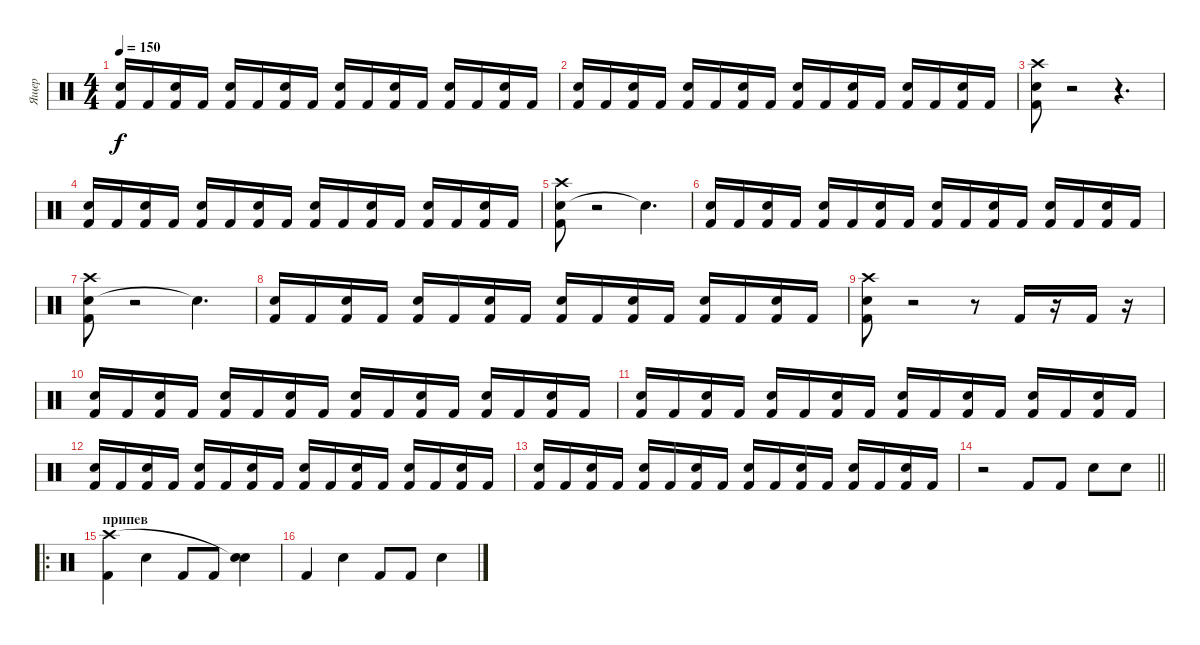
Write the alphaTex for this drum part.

\track ("Ящер" "Ящер") {instrument percussion}
\staff {score}
\articulation defaults
\ts (4 4)
\tempo 150
\clef neutral
\ks c
("Kick (hit) 2" "Snare (hit) 2").16{dy f} "Kick (hit) 2".16 ("Kick (hit) 2" "Snare (hit) 2").16 "Kick (hit) 2".16 ("Kick (hit) 2" "Snare (hit) 2").16 "Kick (hit) 2".16 ("Kick (hit) 2" "Snare (hit) 2").16 "Kick (hit) 2".16 ("Kick (hit) 2" "Snare (hit) 2").16 "Kick (hit) 2".16 ("Kick (hit) 2" "Snare (hit) 2").16 "Kick (hit) 2".16 ("Kick (hit) 2" "Snare (hit) 2").16 "Kick (hit) 2".16 ("Kick (hit) 2" "Snare (hit) 2").16 "Kick (hit) 2".16 |
("Kick (hit) 2" "Snare (hit) 2").16 "Kick (hit) 2".16 ("Kick (hit) 2" "Snare (hit) 2").16 "Kick (hit) 2".16 ("Kick (hit) 2" "Snare (hit) 2").16 "Kick (hit) 2".16 ("Kick (hit) 2" "Snare (hit) 2").16 "Kick (hit) 2".16 ("Kick (hit) 2" "Snare (hit) 2").16 "Kick (hit) 2".16 ("Kick (hit) 2" "Snare (hit) 2").16 "Kick (hit) 2".16 ("Kick (hit) 2" "Snare (hit) 2").16 "Kick (hit) 2".16 ("Kick (hit) 2" "Snare (hit) 2").16 "Kick (hit) 2".16 |
("Snare (hit) 2" "Crash high (hit)" "Kick (hit) 2").8 r.2 r.4{d} |
("Kick (hit) 2" "Snare (hit) 2").16 "Kick (hit) 2".16 ("Kick (hit) 2" "Snare (hit) 2").16 "Kick (hit) 2".16 ("Kick (hit) 2" "Snare (hit) 2").16 "Kick (hit) 2".16 ("Kick (hit) 2" "Snare (hit) 2").16 "Kick (hit) 2".16 ("Kick (hit) 2" "Snare (hit) 2").16 "Kick (hit) 2".16 ("Kick (hit) 2" "Snare (hit) 2").16 "Kick (hit) 2".16 ("Kick (hit) 2" "Snare (hit) 2").16 "Kick (hit) 2".16 ("Kick (hit) 2" "Snare (hit) 2").16 "Kick (hit) 2".16 |
("Snare (hit) 2" "Crash high (hit)" "Kick (hit) 2").8 r.2 "Snare (hit)"{t}.4{d} |
("Kick (hit) 2" "Snare (hit) 2").16 "Kick (hit) 2".16 ("Kick (hit) 2" "Snare (hit) 2").16 "Kick (hit) 2".16 ("Kick (hit) 2" "Snare (hit) 2").16 "Kick (hit) 2".16 ("Kick (hit) 2" "Snare (hit) 2").16 "Kick (hit) 2".16 ("Kick (hit) 2" "Snare (hit) 2").16 "Kick (hit) 2".16 ("Kick (hit) 2" "Snare (hit) 2").16 "Kick (hit) 2".16 ("Kick (hit) 2" "Snare (hit) 2").16 "Kick (hit) 2".16 ("Kick (hit) 2" "Snare (hit) 2").16 "Kick (hit) 2".16 |
("Snare (hit) 2" "Crash high (hit)" "Kick (hit) 2").8 r.2 "Snare (hit)"{t}.4{d} |
("Kick (hit) 2" "Snare (hit) 2").16 "Kick (hit) 2".16 ("Kick (hit) 2" "Snare (hit) 2").16 "Kick (hit) 2".16 ("Kick (hit) 2" "Snare (hit) 2").16 "Kick (hit) 2".16 ("Kick (hit) 2" "Snare (hit) 2").16 "Kick (hit) 2".16 ("Kick (hit) 2" "Snare (hit) 2").16 "Kick (hit) 2".16 ("Kick (hit) 2" "Snare (hit) 2").16 "Kick (hit) 2".16 ("Kick (hit) 2" "Snare (hit) 2").16 "Kick (hit) 2".16 ("Kick (hit) 2" "Snare (hit) 2").16 "Kick (hit) 2".16 |
("Snare (hit) 2" "Crash high (hit)" "Kick (hit) 2").8 r.2 r.8 "Kick (hit) 2".16 r.16 "Kick (hit) 2".16 r.16 |
("Kick (hit) 2" "Snare (hit) 2").16 "Kick (hit) 2".16 ("Kick (hit) 2" "Snare (hit) 2").16 "Kick (hit) 2".16 ("Kick (hit) 2" "Snare (hit) 2").16 "Kick (hit) 2".16 ("Kick (hit) 2" "Snare (hit) 2").16 "Kick (hit) 2".16 ("Kick (hit) 2" "Snare (hit) 2").16 "Kick (hit) 2".16 ("Kick (hit) 2" "Snare (hit) 2").16 "Kick (hit) 2".16 ("Kick (hit) 2" "Snare (hit) 2").16 "Kick (hit) 2".16 ("Kick (hit) 2" "Snare (hit) 2").16 "Kick (hit) 2".16 |
("Kick (hit) 2" "Snare (hit) 2").16 "Kick (hit) 2".16 ("Kick (hit) 2" "Snare (hit) 2").16 "Kick (hit) 2".16 ("Kick (hit) 2" "Snare (hit) 2").16 "Kick (hit) 2".16 ("Kick (hit) 2" "Snare (hit) 2").16 "Kick (hit) 2".16 ("Kick (hit) 2" "Snare (hit) 2").16 "Kick (hit) 2".16 ("Kick (hit) 2" "Snare (hit) 2").16 "Kick (hit) 2".16 ("Kick (hit) 2" "Snare (hit) 2").16 "Kick (hit) 2".16 ("Kick (hit) 2" "Snare (hit) 2").16 "Kick (hit) 2".16 |
("Kick (hit) 2" "Snare (hit) 2").16 "Kick (hit) 2".16 ("Kick (hit) 2" "Snare (hit) 2").16 "Kick (hit) 2".16 ("Kick (hit) 2" "Snare (hit) 2").16 "Kick (hit) 2".16 ("Kick (hit) 2" "Snare (hit) 2").16 "Kick (hit) 2".16 ("Kick (hit) 2" "Snare (hit) 2").16 "Kick (hit) 2".16 ("Kick (hit) 2" "Snare (hit) 2").16 "Kick (hit) 2".16 ("Kick (hit) 2" "Snare (hit) 2").16 "Kick (hit) 2".16 ("Kick (hit) 2" "Snare (hit) 2").16 "Kick (hit) 2".16 |
("Kick (hit) 2" "Snare (hit) 2").16 "Kick (hit) 2".16 ("Kick (hit) 2" "Snare (hit) 2").16 "Kick (hit) 2".16 ("Kick (hit) 2" "Snare (hit) 2").16 "Kick (hit) 2".16 ("Kick (hit) 2" "Snare (hit) 2").16 "Kick (hit) 2".16 ("Kick (hit) 2" "Snare (hit) 2").16 "Kick (hit) 2".16 ("Kick (hit) 2" "Snare (hit) 2").16 "Kick (hit) 2".16 ("Kick (hit) 2" "Snare (hit) 2").16 "Kick (hit) 2".16 ("Kick (hit) 2" "Snare (hit) 2").16 "Kick (hit) 2".16 |
\barLineRight lightlight
r.2 "Kick (hit) 2".8 "Kick (hit) 2".8 "Snare (hit) 2".8 "Snare (hit) 2".8 |
\ro
\section ("" "припев")
("Kick (hit) 2" "Crash high (hit)").4 "Snare (hit) 2".4 "Kick (hit) 2".8 "Kick (hit) 2".8 ("Snare (hit) 2" "Snare (hit)"{t}).4 |
"Kick (hit) 2".4 "Snare (hit) 2".4 "Kick (hit) 2".8 "Kick (hit) 2".8 "Snare (hit) 2".4
